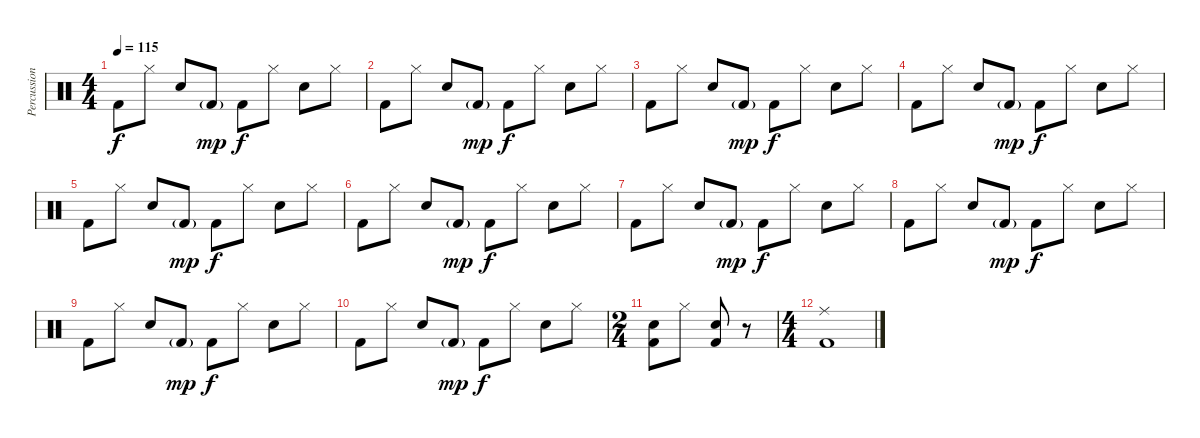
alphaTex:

\track ("Percussion" "Percussion") {instrument percussion}
\staff {score}
\articulation defaults
\ts (4 4)
\tempo 115
\clef neutral
\ks c "Kick (hit) 2".8{dy f} "Hi-Hat (closed)".8 "Snare (hit) 2".8 "Kick (hit) 2"{g}.8{dy mp} "Kick (hit) 2".8{dy f} "Hi-Hat (closed)".8 "Snare (hit) 2".8 "Hi-Hat (closed)".8
|
"Kick (hit) 2".8 "Hi-Hat (closed)".8 "Snare (hit) 2".8 "Kick (hit) 2"{g}.8{dy mp} "Kick (hit) 2".8{dy f} "Hi-Hat (closed)".8 "Snare (hit) 2".8 "Hi-Hat (closed)".8 |
"Kick (hit) 2".8 "Hi-Hat (closed)".8 "Snare (hit) 2".8 "Kick (hit) 2"{g}.8{dy mp} "Kick (hit) 2".8{dy f} "Hi-Hat (closed)".8 "Snare (hit) 2".8 "Hi-Hat (closed)".8 |
"Kick (hit) 2".8 "Hi-Hat (closed)".8 "Snare (hit) 2".8 "Kick (hit) 2"{g}.8{dy mp} "Kick (hit) 2".8{dy f} "Hi-Hat (closed)".8 "Snare (hit) 2".8 "Hi-Hat (closed)".8 |
"Kick (hit) 2".8 "Hi-Hat (closed)".8 "Snare (hit) 2".8 "Kick (hit) 2"{g}.8{dy mp} "Kick (hit) 2".8{dy f} "Hi-Hat (closed)".8 "Snare (hit) 2".8 "Hi-Hat (closed)".8 |
"Kick (hit) 2".8 "Hi-Hat (closed)".8 "Snare (hit) 2".8 "Kick (hit) 2"{g}.8{dy mp} "Kick (hit) 2".8{dy f} "Hi-Hat (closed)".8 "Snare (hit) 2".8 "Hi-Hat (closed)".8 |
"Kick (hit) 2".8 "Hi-Hat (closed)".8 "Snare (hit) 2".8 "Kick (hit) 2"{g}.8{dy mp} "Kick (hit) 2".8{dy f} "Hi-Hat (closed)".8 "Snare (hit) 2".8 "Hi-Hat (closed)".8 |
"Kick (hit) 2".8 "Hi-Hat (closed)".8 "Snare (hit) 2".8 "Kick (hit) 2"{g}.8{dy mp} "Kick (hit) 2".8{dy f} "Hi-Hat (closed)".8 "Snare (hit) 2".8 "Hi-Hat (closed)".8 |
"Kick (hit) 2".8 "Hi-Hat (closed)".8 "Snare (hit) 2".8 "Kick (hit) 2"{g}.8{dy mp} "Kick (hit) 2".8{dy f} "Hi-Hat (closed)".8 "Snare (hit) 2".8 "Hi-Hat (closed)".8 |
"Kick (hit) 2".8 "Hi-Hat (closed)".8 "Snare (hit) 2".8 "Kick (hit) 2"{g}.8{dy mp} "Kick (hit) 2".8{dy f} "Hi-Hat (closed)".8 "Snare (hit) 2".8 "Hi-Hat (closed)".8 |
\ts (2 4)
("Snare (hit) 2" "Kick (hit) 2").8 "Hi-Hat (closed)".8 ("Snare (hit) 2" "Kick (hit) 2").8 r.8 |
\ts (4 4)
("Ride (middle)" "Kick (hit) 2").1
